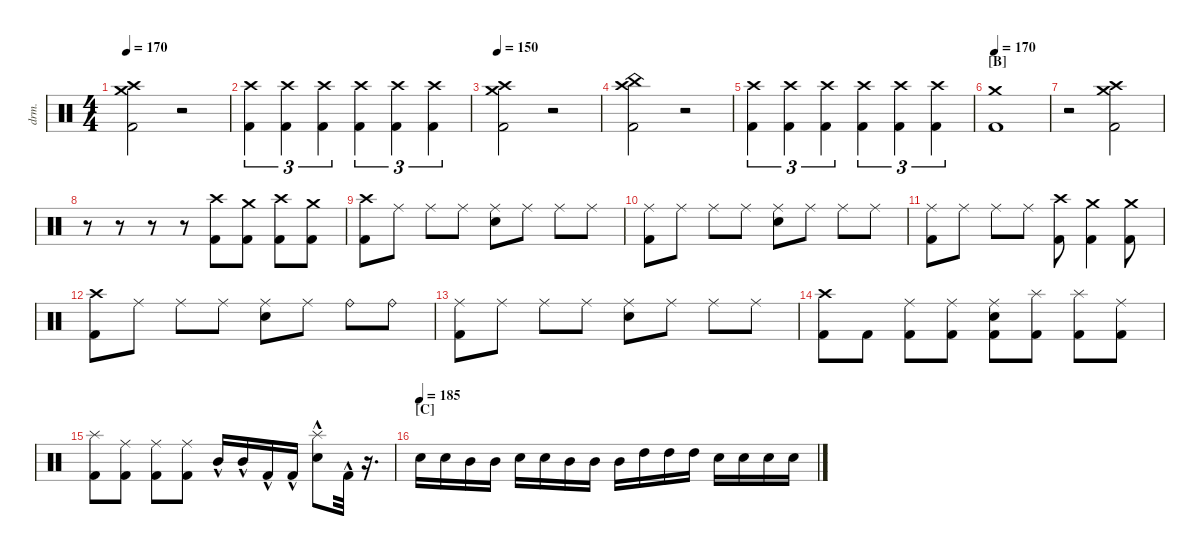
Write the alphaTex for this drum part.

\defaultSystemsLayout 4
\hideDynamics
\bracketExtendMode nobrackets
\otherSystemsTrackNameOrientation horizontal
\track ("Drumkit" "drm.") {instrument percussion}
\staff {score}
\articulation defaults
\ts (4 4)
\tempo 170
\clef neutral
\ks c
("Kick (hit) 2" "Crash high (hit)" "Crash medium (hit)").2{dy mf beam Down} r.2{beam Down} |
("Kick (hit) 2" "Crash high (hit)").4{tu (3 2) beam Down} ("Kick (hit) 2" "Crash high (hit)").4{tu (3 2) beam Down} ("Kick (hit) 2" "Crash high (hit)").4{tu (3 2) beam Down} ("Kick (hit) 2" "Crash high (hit)").4{tu (3 2) beam Down} ("Kick (hit) 2" "Crash high (hit)").4{tu (3 2) beam Down} ("Kick (hit) 2" "Crash high (hit)").4{tu (3 2) beam Down} |
\tempo 150
("Kick (hit) 2" "Crash high (hit)" "Crash medium (hit)").2{beam Down} r.2{beam Down} |
("Kick (hit) 2" "Crash high (hit)" "China (hit)").2{beam Down} r.2{beam Down} |
("Kick (hit) 2" "Crash high (hit)").4{tu (3 2) beam Down} ("Kick (hit) 2" "Crash high (hit)").4{tu (3 2) beam Down} ("Kick (hit) 2" "Crash high (hit)").4{tu (3 2) beam Down} ("Kick (hit) 2" "Crash high (hit)").4{tu (3 2) beam Down} ("Kick (hit) 2" "Crash high (hit)").4{tu (3 2) beam Down} ("Kick (hit) 2" "Crash high (hit)").4{tu (3 2) beam Down} |
\beaming (8 2 2 2 2)
\section ("B" "")
\tempo 170
("Crash medium (hit)" "Kick (hit) 2").1{beam Down} |
r.2{beam Down} ("Kick (hit) 2" "Crash medium (hit)" "Crash high (hit)").2{beam Down} |
r.8{beam Down} r.8{beam Down} r.8{beam Down} r.8{beam Down} ("Kick (hit) 2" "Crash high (hit)").8{beam Down} ("Kick (hit) 2" "Crash medium (hit)").8{beam Down} ("Kick (hit) 2" "Crash high (hit)").8{beam Down} ("Kick (hit) 2" "Crash medium (hit)").8{beam Down} |
("Kick (hit) 2" "Crash high (hit)").8{beam Down} "Ride (middle)".8{beam Down} "Ride (middle)".8{beam Down} "Ride (middle)".8{beam Down} ("Snare (hit) 2" "Ride (middle)").8{beam Down} "Ride (middle)".8{beam Down} "Ride (middle)".8{beam Down} "Ride (middle)".8{beam Down} |
("Kick (hit) 2" "Ride (middle)").8{beam Down} "Ride (middle)".8{beam Down} "Ride (middle)".8{beam Down} "Ride (middle)".8{beam Down} ("Snare (hit) 2" "Ride (middle)").8{beam Down} "Ride (middle)".8{beam Down} "Ride (middle)".8{beam Down} "Ride (middle)".8{beam Down} |
("Kick (hit) 2" "Ride (middle)").8{beam Down} "Ride (middle)".8{beam Down} "Ride (middle)".8{beam Down} "Ride (middle)".8{beam Down} ("Kick (hit) 2" "Crash high (hit)").8{beam Down} ("Kick (hit) 2" "Crash medium (hit)").4{beam Down} ("Kick (hit) 2" "Crash medium (hit)").8{beam Down} |
("Kick (hit) 2" "Crash high (hit)").8{beam Down} "Ride (middle)".8{beam Down} "Ride (middle)".8{beam Down} "Ride (middle)".8{beam Down} ("Snare (hit) 2" "Ride (middle)").8{beam Down} "Ride (middle)".8{beam Down} "Ride (bell)".8{beam Down} "Ride (bell)".8{beam Down} |
("Kick (hit) 2" "Ride (middle)").8{beam Down} "Ride (middle)".8{beam Down} "Ride (middle)".8{beam Down} "Ride (middle)".8{beam Down} ("Snare (hit) 2" "Ride (middle)").8{beam Down} "Ride (middle)".8{beam Down} "Ride (middle)".8{beam Down} "Ride (middle)".8{beam Down} |
("Kick (hit) 2" "Crash high (hit)").8{beam Down} "Kick (hit) 2".8{beam Down} ("Ride (middle)" "Kick (hit) 2").8{beam Down} ("Ride (middle)" "Kick (hit) 2").8{beam Down} ("Snare (hit) 2" "Ride (middle)" "Kick (hit) 2").8{beam Down} ("Splash (hit)" "Kick (hit) 2").8{beam Down} ("Splash (hit)" "Kick (hit) 2").8{beam Down} ("Ride (middle)" "Kick (hit) 2").8{beam Down} |
("Kick (hit) 2" "Splash (hit)").8{beam Down} ("Ride (middle)" "Kick (hit) 2").8{beam Down} ("Ride (middle)" "Kick (hit) 2").8{beam Down} ("Ride (middle)" "Kick (hit) 2").8{beam Down} "Mid Tom (hit)"{hac}.16{beam Up} "Mid Tom (hit)"{hac}.16{beam Up} "Kick (hit) 2"{hac}.16{beam Up} "Kick (hit) 2"{hac}.16{beam Up} ("Snare (hit) 2"{hac} "Splash (hit)"{hac}).8{beam Down} "Kick (hit) 2"{hac}.32{beam Down} r.16{d beam Down} |
\section ("C" "")
\tempo (185)
"Snare (hit) 2".16{beam Down} "Snare (hit) 2".16{beam Down} "Mid Tom (hit)".16{beam Down} "Mid Tom (hit)".16{beam Down} "Snare (hit) 2".16{beam Down} "Snare (hit) 2".16{beam Down} "Mid Tom (hit)".16{beam Down} "Mid Tom (hit)".16{beam Down} "Mid Tom (hit)".16{beam Down} "High Tom (hit)".16{beam Down} "High Tom (hit)".16{beam Down} "High Tom (hit)".16{beam Down} "Snare (hit) 2".16{beam Down} "Snare (hit) 2".16{beam Down} "Snare (hit) 2".16{beam Down} "Snare (hit) 2".16{beam Down}
